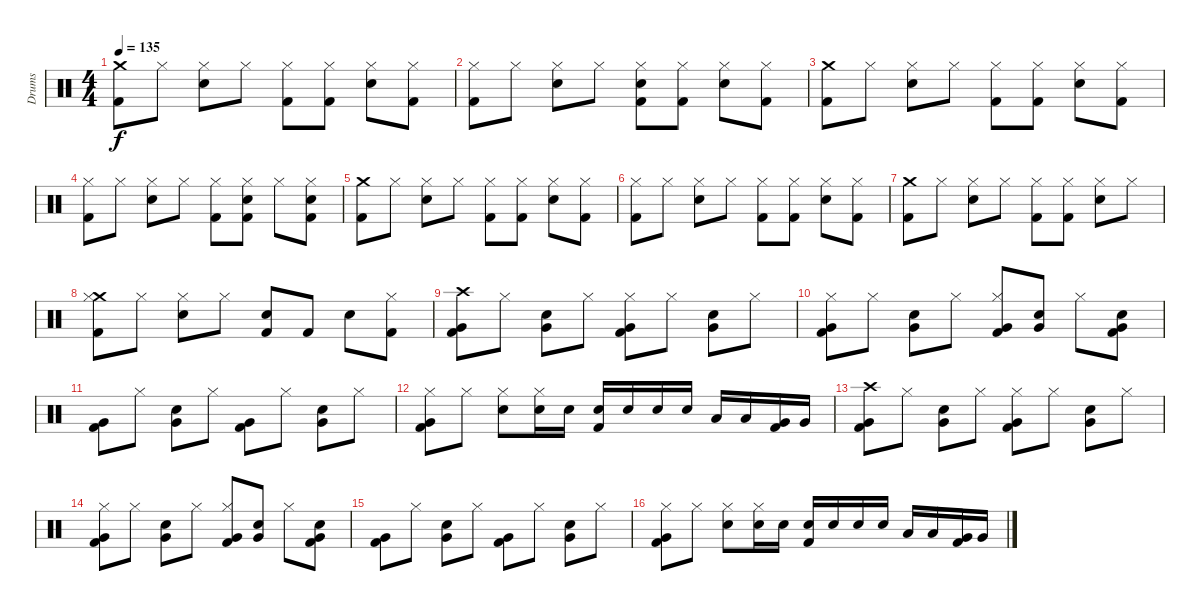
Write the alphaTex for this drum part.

\track ("Drums" "Drums") {instrument percussion}
\staff {score}
\articulation defaults
\ts (4 4)
\tempo 135
\clef neutral
\ks c
("Crash medium (hit)" "Kick (hit) 2").8{dy f} "Hi-Hat (closed)".8 ("Hi-Hat (closed)" "Snare (hit) 2").8 "Hi-Hat (closed)".8 ("Hi-Hat (closed)" "Kick (hit) 2").8 ("Hi-Hat (closed)" "Kick (hit) 2").8 ("Hi-Hat (closed)" "Snare (hit) 2").8 ("Hi-Hat (closed)" "Kick (hit) 2").8 |
("Hi-Hat (closed)" "Kick (hit) 2").8 "Hi-Hat (closed)".8 ("Hi-Hat (closed)" "Snare (hit) 2").8 "Hi-Hat (closed)".8 ("Hi-Hat (closed)" "Snare (hit) 2" "Kick (hit) 2").8 ("Hi-Hat (closed)" "Kick (hit) 2").8 ("Hi-Hat (closed)" "Snare (hit) 2").8 ("Hi-Hat (closed)" "Kick (hit) 2").8 |
("Crash medium (hit)" "Kick (hit) 2").8 "Hi-Hat (closed)".8 ("Hi-Hat (closed)" "Snare (hit) 2").8 "Hi-Hat (closed)".8 ("Hi-Hat (closed)" "Kick (hit) 2").8 ("Hi-Hat (closed)" "Kick (hit) 2").8 ("Hi-Hat (closed)" "Snare (hit) 2").8 ("Hi-Hat (closed)" "Kick (hit) 2").8 |
("Hi-Hat (closed)" "Kick (hit) 2").8 "Hi-Hat (closed)".8 ("Hi-Hat (closed)" "Snare (hit) 2").8 "Hi-Hat (closed)".8 ("Hi-Hat (closed)" "Kick (hit) 2").8 ("Hi-Hat (closed)" "Snare (hit) 2" "Kick (hit) 2").8 "Hi-Hat (closed)".8 ("Hi-Hat (closed)" "Snare (hit) 2" "Kick (hit) 2").8 |
("Crash medium (hit)" "Kick (hit) 2").8 "Hi-Hat (closed)".8 ("Hi-Hat (closed)" "Snare (hit) 2").8 "Hi-Hat (closed)".8 ("Hi-Hat (closed)" "Kick (hit) 2").8 ("Hi-Hat (closed)" "Kick (hit) 2").8 ("Hi-Hat (closed)" "Snare (hit) 2").8 ("Hi-Hat (closed)" "Kick (hit) 2").8 |
("Hi-Hat (closed)" "Kick (hit) 2").8 "Hi-Hat (closed)".8 ("Hi-Hat (closed)" "Snare (hit) 2").8 "Hi-Hat (closed)".8 ("Hi-Hat (closed)" "Kick (hit) 2").8 ("Hi-Hat (closed)" "Kick (hit) 2").8 ("Hi-Hat (closed)" "Snare (hit) 2").8 ("Hi-Hat (closed)" "Kick (hit) 2").8 |
("Crash medium (hit)" "Kick (hit) 2").8 "Hi-Hat (closed)".8 ("Hi-Hat (closed)" "Snare (hit) 2").8 "Hi-Hat (closed)".8 ("Hi-Hat (closed)" "Kick (hit) 2").8 ("Hi-Hat (closed)" "Kick (hit) 2").8 ("Hi-Hat (closed)" "Snare (hit) 2").8 "Hi-Hat (closed)".8 |
("Crash medium (hit)" "Hi-Hat (closed)" "Kick (hit) 2").8 "Hi-Hat (closed)".8 ("Hi-Hat (closed)" "Snare (hit) 2").8 "Hi-Hat (closed)".8 ("Snare (hit) 2" "Kick (hit) 2").8 "Kick (hit) 2".8 "Snare (hit) 2".8 ("Hi-Hat (closed)" "Kick (hit) 2").8 |
("Crash high (hit)" "Very Low Tom (hit)" "Kick (hit) 2").8 "Hi-Hat (closed)".8 ("Very Low Tom (hit)" "Snare (hit) 2").8 "Hi-Hat (closed)".8 ("Hi-Hat (closed)" "Very Low Tom (hit)" "Kick (hit) 2").8 "Hi-Hat (closed)".8 ("Very Low Tom (hit)" "Snare (hit) 2").8 "Hi-Hat (closed)".8 |
("Hi-Hat (closed)" "Very Low Tom (hit)" "Kick (hit) 2").8 "Hi-Hat (closed)".8 ("Very Low Tom (hit)" "Snare (hit) 2").8 "Hi-Hat (closed)".8 ("Hi-Hat (closed)" "Very Low Tom (hit)" "Kick (hit) 2").8 ("Very Low Tom (hit)" "Snare (hit) 2").8 "Hi-Hat (closed)".8 ("Very Low Tom (hit)" "Snare (hit) 2" "Kick (hit) 2").8 |
("Very Low Tom (hit)" "Kick (hit) 2").8 "Hi-Hat (closed)".8 ("Very Low Tom (hit)" "Snare (hit) 2").8 "Hi-Hat (closed)".8 ("Very Low Tom (hit)" "Kick (hit) 2").8 "Hi-Hat (closed)".8 ("Very Low Tom (hit)" "Snare (hit) 2").8 "Hi-Hat (closed)".8 |
("Hi-Hat (closed)" "Very Low Tom (hit)" "Kick (hit) 2").8 "Hi-Hat (closed)".8 ("Hi-Hat (closed)" "Snare (hit) 2").8 ("Hi-Hat (closed)" "Snare (hit) 2").16 "Snare (hit) 2".16 ("Snare (hit) 2" "Kick (hit) 2").16 "Snare (hit) 2".16 "Snare (hit) 2".16 "Snare (hit) 2".16 "Low Tom (hit)".16 "Low Tom (hit)".16 ("Very Low Tom (hit)" "Kick (hit) 2").16 "Very Low Tom (hit)".16 |
("Crash high (hit)" "Very Low Tom (hit)" "Kick (hit) 2").8 "Hi-Hat (closed)".8 ("Very Low Tom (hit)" "Snare (hit) 2").8 "Hi-Hat (closed)".8 ("Hi-Hat (closed)" "Very Low Tom (hit)" "Kick (hit) 2").8 "Hi-Hat (closed)".8 ("Very Low Tom (hit)" "Snare (hit) 2").8 "Hi-Hat (closed)".8 |
("Hi-Hat (closed)" "Very Low Tom (hit)" "Kick (hit) 2").8 "Hi-Hat (closed)".8 ("Very Low Tom (hit)" "Snare (hit) 2").8 "Hi-Hat (closed)".8 ("Hi-Hat (closed)" "Very Low Tom (hit)" "Kick (hit) 2").8 ("Very Low Tom (hit)" "Snare (hit) 2").8 "Hi-Hat (closed)".8 ("Very Low Tom (hit)" "Snare (hit) 2" "Kick (hit) 2").8 |
("Very Low Tom (hit)" "Kick (hit) 2").8 "Hi-Hat (closed)".8 ("Very Low Tom (hit)" "Snare (hit) 2").8 "Hi-Hat (closed)".8 ("Very Low Tom (hit)" "Kick (hit) 2").8 "Hi-Hat (closed)".8 ("Very Low Tom (hit)" "Snare (hit) 2").8 "Hi-Hat (closed)".8 |
("Hi-Hat (closed)" "Very Low Tom (hit)" "Kick (hit) 2").8 "Hi-Hat (closed)".8 ("Hi-Hat (closed)" "Snare (hit) 2").8 ("Hi-Hat (closed)" "Snare (hit) 2").16 "Snare (hit) 2".16 ("Snare (hit) 2" "Kick (hit) 2").16 "Snare (hit) 2".16 "Snare (hit) 2".16 "Snare (hit) 2".16 "Low Tom (hit)".16 "Low Tom (hit)".16 ("Very Low Tom (hit)" "Kick (hit) 2").16 "Very Low Tom (hit)".16
